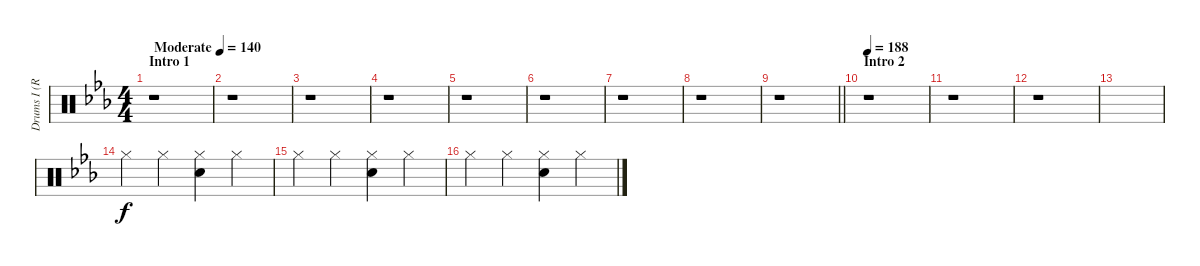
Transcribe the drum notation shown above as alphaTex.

\track ("Drums I (RUKA)" "Drums I (R") {instrument percussion}
\staff {score}
\articulation defaults
\ts (4 4)
\section ("" "Intro 1")
\tempo (140 "Moderate")
\clef neutral
\ks eb
r.1{dy f} |
r.1 |
r.1 |
r.1 |
r.1 |
r.1 |
r.1 |
r.1 |
\barLineRight lightlight
r.1 |
\section ("" "Intro 2")
\tempo 188
r.1 |
r.1 |
r.1 |
|
"Hi-Hat (closed)".4 "Hi-Hat (closed)".4 ("Hi-Hat (closed)" "Snare (hit) 2").4 "Hi-Hat (closed)".4 |
"Hi-Hat (closed)".4 "Hi-Hat (closed)".4 ("Hi-Hat (closed)" "Snare (hit) 2").4 "Hi-Hat (closed)".4 |
"Hi-Hat (closed)".4 "Hi-Hat (closed)".4 ("Hi-Hat (closed)" "Snare (hit) 2").4 "Hi-Hat (closed)".4
